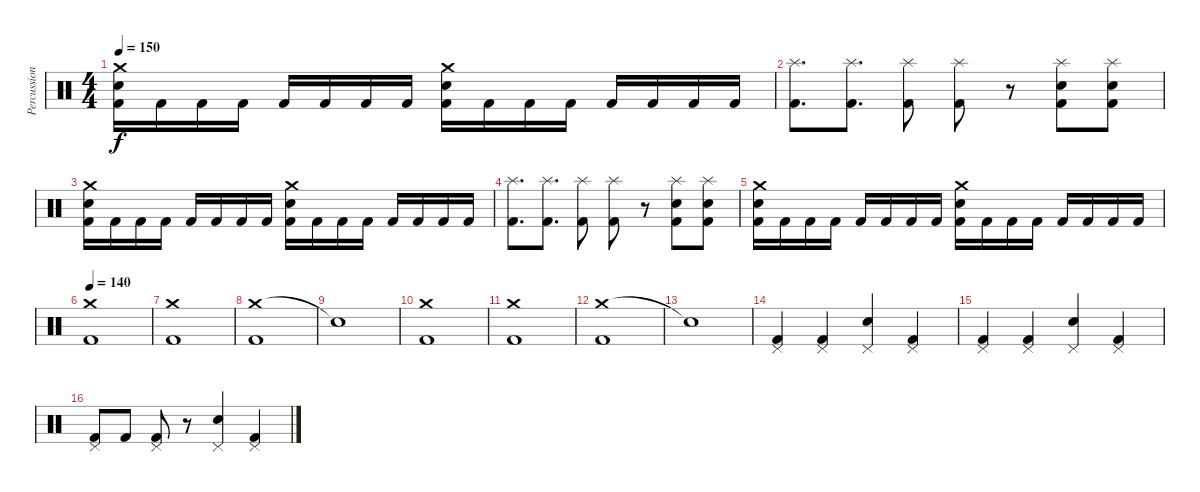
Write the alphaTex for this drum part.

\track ("Percussions" "Percussion") {instrument percussion}
\staff {score}
\articulation defaults
\ts (4 4)
\tempo 150
\clef neutral
\ks c
("Crash medium (hit)" "Electric Snare (hit)" "Kick (hit) 2").16{dy f} "Kick (hit) 2".16 "Kick (hit) 2".16 "Kick (hit) 2".16 "Kick (hit) 2".16 "Kick (hit) 2".16 "Kick (hit) 2".16 "Kick (hit) 2".16 ("Crash medium (hit)" "Electric Snare (hit)" "Kick (hit) 2").16 "Kick (hit) 2".16 "Kick (hit) 2".16 "Kick (hit) 2".16 "Kick (hit) 2".16 "Kick (hit) 2".16 "Kick (hit) 2".16 "Kick (hit) 2".16 |
("Splash (hit)" "Kick (hit) 2").8{d} ("Splash (hit)" "Kick (hit) 2").8{d} ("Splash (hit)" "Kick (hit) 2").8 ("Splash (hit)" "Kick (hit) 2").8 r.8 ("Splash (hit)" "Electric Snare (hit)" "Kick (hit) 2").8 ("Splash (hit)" "Electric Snare (hit)" "Kick (hit) 2").8 |
("Crash medium (hit)" "Electric Snare (hit)" "Kick (hit) 2").16 "Kick (hit) 2".16 "Kick (hit) 2".16 "Kick (hit) 2".16 "Kick (hit) 2".16 "Kick (hit) 2".16 "Kick (hit) 2".16 "Kick (hit) 2".16 ("Crash medium (hit)" "Electric Snare (hit)" "Kick (hit) 2").16 "Kick (hit) 2".16 "Kick (hit) 2".16 "Kick (hit) 2".16 "Kick (hit) 2".16 "Kick (hit) 2".16 "Kick (hit) 2".16 "Kick (hit) 2".16 |
("Splash (hit)" "Kick (hit) 2").8{d} ("Splash (hit)" "Kick (hit) 2").8{d} ("Splash (hit)" "Kick (hit) 2").8 ("Splash (hit)" "Kick (hit) 2").8 r.8 ("Splash (hit)" "Electric Snare (hit)" "Kick (hit) 2").8 ("Splash (hit)" "Electric Snare (hit)" "Kick (hit) 2").8 |
("Crash medium (hit)" "Electric Snare (hit)" "Kick (hit) 2").16 "Kick (hit) 2".16 "Kick (hit) 2".16 "Kick (hit) 2".16 "Kick (hit) 2".16 "Kick (hit) 2".16 "Kick (hit) 2".16 "Kick (hit) 2".16 ("Crash medium (hit)" "Electric Snare (hit)" "Kick (hit) 2").16 "Kick (hit) 2".16 "Kick (hit) 2".16 "Kick (hit) 2".16 "Kick (hit) 2".16 "Kick (hit) 2".16 "Kick (hit) 2".16 "Kick (hit) 2".16 |
\tempo 140
("Crash medium (hit)" "Kick (hit) 2").1 |
("Crash medium (hit)" "Kick (hit) 2").1 |
("Crash medium (hit)" "Kick (hit) 2").1 |
"Snare (hit)"{t}.1 |
("Crash medium (hit)" "Kick (hit) 2").1 |
("Crash medium (hit)" "Kick (hit) 2").1 |
("Crash medium (hit)" "Kick (hit) 2").1 |
"Snare (hit)"{t}.1 |
("Pedal Hi-Hat (hit)" "Kick (hit) 2").4 ("Pedal Hi-Hat (hit)" "Kick (hit) 2").4 ("Pedal Hi-Hat (hit)" "Electric Snare (hit)").4 ("Pedal Hi-Hat (hit)" "Kick (hit) 2").4 |
("Pedal Hi-Hat (hit)" "Kick (hit) 2").4 ("Pedal Hi-Hat (hit)" "Kick (hit) 2").4 ("Pedal Hi-Hat (hit)" "Electric Snare (hit)").4 ("Pedal Hi-Hat (hit)" "Kick (hit) 2").4 |
("Pedal Hi-Hat (hit)" "Kick (hit) 2").8 "Kick (hit) 2".8 ("Pedal Hi-Hat (hit)" "Kick (hit) 2").8 r.8 ("Pedal Hi-Hat (hit)" "Electric Snare (hit)").4 ("Pedal Hi-Hat (hit)" "Kick (hit) 2").4
